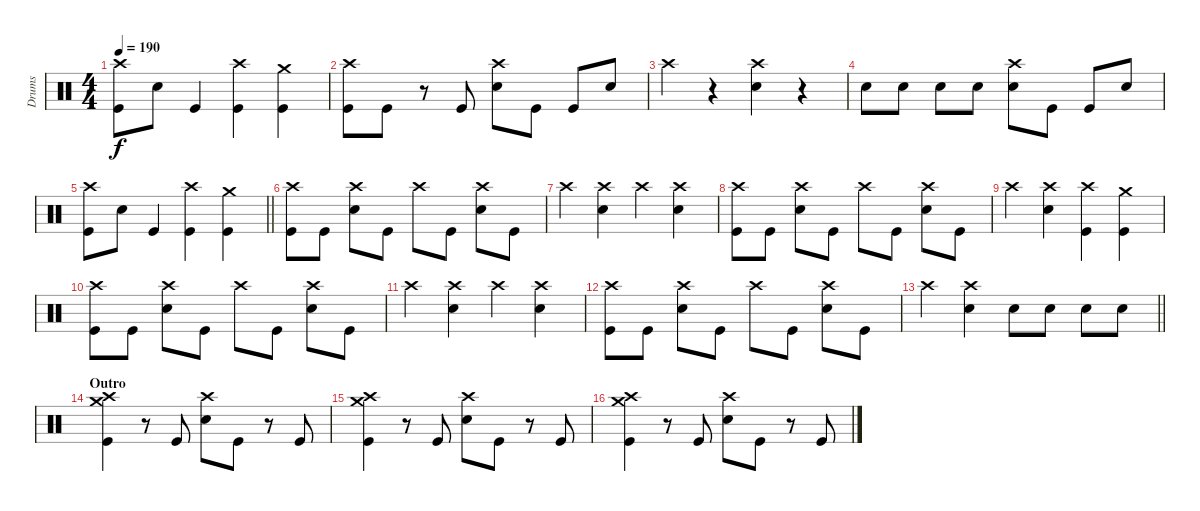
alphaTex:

\track ("Drums" "Drums") {instrument percussion}
\staff {score}
\articulation defaults
\ts (4 4)
\tempo 190
\clef neutral
\ks c
("Crash high (hit)" "Kick (hit)").8{dy f} "Snare (hit) 2".8 "Kick (hit)".4 ("Crash high (hit)" "Kick (hit)").4 ("Crash medium (hit)" "Kick (hit)").4 |
("Crash high (hit)" "Kick (hit)").8 "Kick (hit)".8 r.8 "Kick (hit)".8 ("Crash high (hit)" "Snare (hit) 2").8 "Kick (hit)".8 "Kick (hit)".8 "Snare (hit) 2".8 |
"Crash high (hit)".4 r.4 ("Crash high (hit)" "Snare (hit) 2").4 r.4 |
"Snare (hit) 2".8 "Snare (hit) 2".8 "Snare (hit) 2".8 "Snare (hit) 2".8 ("Crash high (hit)" "Snare (hit) 2").8 "Kick (hit)".8 "Kick (hit)".8 "Snare (hit) 2".8 |
\barLineRight lightlight
("Crash high (hit)" "Kick (hit)").8 "Snare (hit) 2".8 "Kick (hit)".4 ("Crash high (hit)" "Kick (hit)").4 ("Crash medium (hit)" "Kick (hit)").4 |
("Crash high (hit)" "Kick (hit)").8 "Kick (hit)".8 ("Crash high (hit)" "Snare (hit) 2").8 "Kick (hit)".8 "Crash high (hit)".8 "Kick (hit)".8 ("Crash high (hit)" "Snare (hit) 2").8 "Kick (hit)".8 |
"Crash high (hit)".4 ("Crash high (hit)" "Snare (hit) 2").4 "Crash high (hit)".4 ("Crash high (hit)" "Snare (hit) 2").4 |
("Crash high (hit)" "Kick (hit)").8 "Kick (hit)".8 ("Crash high (hit)" "Snare (hit) 2").8 "Kick (hit)".8 "Crash high (hit)".8 "Kick (hit)".8 ("Crash high (hit)" "Snare (hit) 2").8 "Kick (hit)".8 |
"Crash high (hit)".4 ("Crash high (hit)" "Snare (hit) 2").4 ("Crash high (hit)" "Kick (hit)").4 ("Crash medium (hit)" "Kick (hit)").4 |
("Crash high (hit)" "Kick (hit)").8 "Kick (hit)".8 ("Crash high (hit)" "Snare (hit) 2").8 "Kick (hit)".8 "Crash high (hit)".8 "Kick (hit)".8 ("Crash high (hit)" "Snare (hit) 2").8 "Kick (hit)".8 |
"Crash high (hit)".4 ("Crash high (hit)" "Snare (hit) 2").4 "Crash high (hit)".4 ("Crash high (hit)" "Snare (hit) 2").4 |
("Crash high (hit)" "Kick (hit)").8 "Kick (hit)".8 ("Crash high (hit)" "Snare (hit) 2").8 "Kick (hit)".8 "Crash high (hit)".8 "Kick (hit)".8 ("Crash high (hit)" "Snare (hit) 2").8 "Kick (hit)".8 |
\barLineRight lightlight "Crash high (hit)".4
("Crash high (hit)" "Snare (hit) 2").4 "Snare (hit) 2".8 "Snare (hit) 2".8 "Snare (hit) 2".8 "Snare (hit) 2".8 |
\section ("" "Outro")
("Crash high (hit)" "Crash medium (hit)" "Kick (hit)").4 r.8 "Kick (hit)".8 ("Crash high (hit)" "Snare (hit) 2").8 "Kick (hit)".8 r.8 "Kick (hit)".8 |
("Crash high (hit)" "Crash medium (hit)" "Kick (hit)").4 r.8 "Kick (hit)".8 ("Crash high (hit)" "Snare (hit) 2").8 "Kick (hit)".8 r.8 "Kick (hit)".8 |
("Crash high (hit)" "Crash medium (hit)" "Kick (hit)").4 r.8 "Kick (hit)".8 ("Crash high (hit)" "Snare (hit) 2").8 "Kick (hit)".8 r.8 "Kick (hit)".8
